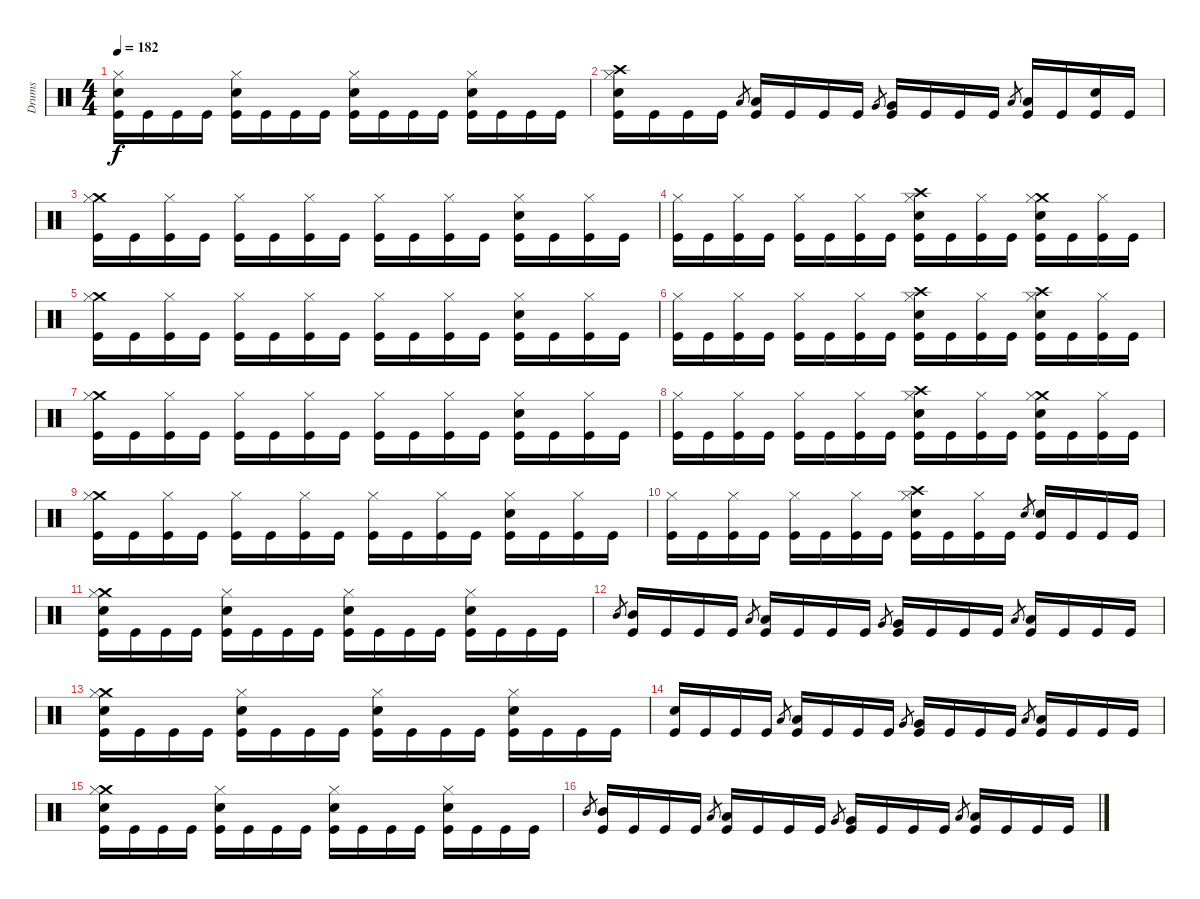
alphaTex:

\track ("Drums" "Drums") {instrument percussion}
\staff {score}
\articulation defaults
\ts (4 4)
\tempo 182
\clef neutral
\ks c
("Hi-Hat (closed)" "Snare (hit) 2" "Kick (hit)").16{dy f} "Kick (hit)".16 "Kick (hit)".16 "Kick (hit)".16 ("Hi-Hat (closed)" "Snare (hit) 2" "Kick (hit)").16 "Kick (hit)".16 "Kick (hit)".16 "Kick (hit)".16 ("Hi-Hat (closed)" "Snare (hit) 2" "Kick (hit)").16 "Kick (hit)".16 "Kick (hit)".16 "Kick (hit)".16 ("Hi-Hat (closed)" "Snare (hit) 2" "Kick (hit)").16 "Kick (hit)".16 "Kick (hit)".16 "Kick (hit)".16 |
("Crash high (hit)" "Hi-Hat (closed)" "Snare (hit) 2" "Kick (hit)").16 "Kick (hit)".16 "Kick (hit)".16 "Kick (hit)".16 "Low Tom (hit)".8{gr} ("Low Tom (hit)" "Kick (hit)").16 "Kick (hit)".16 "Kick (hit)".16 "Kick (hit)".16 "Very Low Tom (hit)".8{gr} ("Very Low Tom (hit)" "Kick (hit)").16 "Kick (hit)".16 "Kick (hit)".16 "Kick (hit)".16 "Low Floor Tom (hit)".8{gr} ("Low Floor Tom (hit)" "Kick (hit)").16 "Kick (hit)".16 ("Snare (hit) 2" "Kick (hit)").16 "Kick (hit)".16 |
("Crash medium (hit)" "Hi-Hat (closed)" "Kick (hit)").16 "Kick (hit)".16 ("Hi-Hat (closed)" "Kick (hit)").16 "Kick (hit)".16 ("Hi-Hat (closed)" "Kick (hit)").16 "Kick (hit)".16 ("Hi-Hat (closed)" "Kick (hit)").16 "Kick (hit)".16 ("Hi-Hat (closed)" "Kick (hit)").16 "Kick (hit)".16 ("Hi-Hat (closed)" "Kick (hit)").16 "Kick (hit)".16 ("Hi-Hat (closed)" "Snare (hit) 2" "Kick (hit)").16 "Kick (hit)".16 ("Hi-Hat (closed)" "Kick (hit)").16 "Kick (hit)".16 |
("Hi-Hat (closed)" "Kick (hit)").16 "Kick (hit)".16 ("Hi-Hat (closed)" "Kick (hit)").16 "Kick (hit)".16 ("Hi-Hat (closed)" "Kick (hit)").16 "Kick (hit)".16 ("Hi-Hat (closed)" "Kick (hit)").16 "Kick (hit)".16 ("Crash high (hit)" "Hi-Hat (closed)" "Snare (hit) 2" "Kick (hit)").16 "Kick (hit)".16 ("Hi-Hat (closed)" "Kick (hit)").16 "Kick (hit)".16 ("Crash medium (hit)" "Hi-Hat (closed)" "Snare (hit) 2" "Kick (hit)").16 "Kick (hit)".16 ("Hi-Hat (closed)" "Kick (hit)").16 "Kick (hit)".16 |
("Crash medium (hit)" "Hi-Hat (closed)" "Kick (hit)").16 "Kick (hit)".16 ("Hi-Hat (closed)" "Kick (hit)").16 "Kick (hit)".16 ("Hi-Hat (closed)" "Kick (hit)").16 "Kick (hit)".16 ("Hi-Hat (closed)" "Kick (hit)").16 "Kick (hit)".16 ("Hi-Hat (closed)" "Kick (hit)").16 "Kick (hit)".16 ("Hi-Hat (closed)" "Kick (hit)").16 "Kick (hit)".16 ("Hi-Hat (closed)" "Snare (hit) 2" "Kick (hit)").16 "Kick (hit)".16 ("Hi-Hat (closed)" "Kick (hit)").16 "Kick (hit)".16 |
("Hi-Hat (closed)" "Kick (hit)").16 "Kick (hit)".16 ("Hi-Hat (closed)" "Kick (hit)").16 "Kick (hit)".16 ("Hi-Hat (closed)" "Kick (hit)").16 "Kick (hit)".16 ("Hi-Hat (closed)" "Kick (hit)").16 "Kick (hit)".16 ("Crash high (hit)" "Hi-Hat (closed)" "Snare (hit) 2" "Kick (hit)").16 "Kick (hit)".16 ("Hi-Hat (closed)" "Kick (hit)").16 "Kick (hit)".16 ("Crash high (hit)" "Hi-Hat (closed)" "Snare (hit) 2" "Kick (hit)").16 "Kick (hit)".16 ("Hi-Hat (closed)" "Kick (hit)").16 "Kick (hit)".16 |
("Crash medium (hit)" "Hi-Hat (closed)" "Kick (hit)").16 "Kick (hit)".16 ("Hi-Hat (closed)" "Kick (hit)").16 "Kick (hit)".16 ("Hi-Hat (closed)" "Kick (hit)").16 "Kick (hit)".16 ("Hi-Hat (closed)" "Kick (hit)").16 "Kick (hit)".16 ("Hi-Hat (closed)" "Kick (hit)").16 "Kick (hit)".16 ("Hi-Hat (closed)" "Kick (hit)").16 "Kick (hit)".16 ("Hi-Hat (closed)" "Snare (hit) 2" "Kick (hit)").16 "Kick (hit)".16 ("Hi-Hat (closed)" "Kick (hit)").16 "Kick (hit)".16 |
("Hi-Hat (closed)" "Kick (hit)").16 "Kick (hit)".16 ("Hi-Hat (closed)" "Kick (hit)").16 "Kick (hit)".16 ("Hi-Hat (closed)" "Kick (hit)").16 "Kick (hit)".16 ("Hi-Hat (closed)" "Kick (hit)").16 "Kick (hit)".16 ("Crash high (hit)" "Hi-Hat (closed)" "Snare (hit) 2" "Kick (hit)").16 "Kick (hit)".16 ("Hi-Hat (closed)" "Kick (hit)").16 "Kick (hit)".16 ("Crash medium (hit)" "Hi-Hat (closed)" "Snare (hit) 2" "Kick (hit)").16 "Kick (hit)".16 ("Hi-Hat (closed)" "Kick (hit)").16 "Kick (hit)".16 |
("Crash medium (hit)" "Hi-Hat (closed)" "Kick (hit)").16 "Kick (hit)".16 ("Hi-Hat (closed)" "Kick (hit)").16 "Kick (hit)".16 ("Hi-Hat (closed)" "Kick (hit)").16 "Kick (hit)".16 ("Hi-Hat (closed)" "Kick (hit)").16 "Kick (hit)".16 ("Hi-Hat (closed)" "Kick (hit)").16 "Kick (hit)".16 ("Hi-Hat (closed)" "Kick (hit)").16 "Kick (hit)".16 ("Hi-Hat (closed)" "Snare (hit) 2" "Kick (hit)").16 "Kick (hit)".16 ("Hi-Hat (closed)" "Kick (hit)").16 "Kick (hit)".16 |
("Hi-Hat (closed)" "Kick (hit)").16 "Kick (hit)".16 ("Hi-Hat (closed)" "Kick (hit)").16 "Kick (hit)".16 ("Hi-Hat (closed)" "Kick (hit)").16 "Kick (hit)".16 ("Hi-Hat (closed)" "Kick (hit)").16 "Kick (hit)".16 ("Crash high (hit)" "Hi-Hat (closed)" "Snare (hit) 2" "Kick (hit)").16 "Kick (hit)".16 ("Hi-Hat (closed)" "Kick (hit)").16 "Kick (hit)".16 "Snare (hit) 2".8{gr} ("Snare (hit) 2" "Kick (hit)").16 "Kick (hit)".16 "Kick (hit)".16 "Kick (hit)".16 |
("Crash medium (hit)" "Hi-Hat (closed)" "Snare (hit) 2" "Kick (hit)").16 "Kick (hit)".16 "Kick (hit)".16 "Kick (hit)".16 ("Hi-Hat (closed)" "Snare (hit) 2" "Kick (hit)").16 "Kick (hit)".16 "Kick (hit)".16 "Kick (hit)".16 ("Hi-Hat (closed)" "Snare (hit) 2" "Kick (hit)").16 "Kick (hit)".16 "Kick (hit)".16 "Kick (hit)".16 ("Hi-Hat (closed)" "Snare (hit) 2" "Kick (hit)").16 "Kick (hit)".16 "Kick (hit)".16 "Kick (hit)".16 |
"Mid Tom (hit)".8{gr} ("Mid Tom (hit)" "Kick (hit)").16 "Kick (hit)".16 "Kick (hit)".16 "Kick (hit)".16 "Low Tom (hit)".8{gr} ("Low Tom (hit)" "Kick (hit)").16 "Kick (hit)".16 "Kick (hit)".16 "Kick (hit)".16 "Very Low Tom (hit)".8{gr} ("Very Low Tom (hit)" "Kick (hit)").16 "Kick (hit)".16 "Kick (hit)".16 "Kick (hit)".16 "Low Floor Tom (hit)".8{gr} ("Low Floor Tom (hit)" "Kick (hit)").16 "Kick (hit)".16 "Kick (hit)".16 "Kick (hit)".16 |
("Crash medium (hit)" "Hi-Hat (closed)" "Snare (hit) 2" "Kick (hit)").16 "Kick (hit)".16 "Kick (hit)".16 "Kick (hit)".16 ("Hi-Hat (closed)" "Snare (hit) 2" "Kick (hit)").16 "Kick (hit)".16 "Kick (hit)".16 "Kick (hit)".16 ("Hi-Hat (closed)" "Snare (hit) 2" "Kick (hit)").16 "Kick (hit)".16 "Kick (hit)".16 "Kick (hit)".16 ("Hi-Hat (closed)" "Snare (hit) 2" "Kick (hit)").16 "Kick (hit)".16 "Kick (hit)".16 "Kick (hit)".16 |
("Snare (hit) 2" "Kick (hit)").16 "Kick (hit)".16 "Kick (hit)".16 "Kick (hit)".16 "Low Tom (hit)".8{gr} ("Low Tom (hit)" "Kick (hit)").16 "Kick (hit)".16 "Kick (hit)".16 "Kick (hit)".16 "Very Low Tom (hit)".8{gr} ("Very Low Tom (hit)" "Kick (hit)").16 "Kick (hit)".16 "Kick (hit)".16 "Kick (hit)".16 "Low Floor Tom (hit)".8{gr} ("Low Floor Tom (hit)" "Kick (hit)").16 "Kick (hit)".16 "Kick (hit)".16 "Kick (hit)".16 |
("Crash medium (hit)" "Hi-Hat (closed)" "Snare (hit) 2" "Kick (hit)").16 "Kick (hit)".16 "Kick (hit)".16 "Kick (hit)".16 ("Hi-Hat (closed)" "Snare (hit) 2" "Kick (hit)").16 "Kick (hit)".16 "Kick (hit)".16 "Kick (hit)".16 ("Hi-Hat (closed)" "Snare (hit) 2" "Kick (hit)").16 "Kick (hit)".16 "Kick (hit)".16 "Kick (hit)".16 ("Hi-Hat (closed)" "Snare (hit) 2" "Kick (hit)").16 "Kick (hit)".16 "Kick (hit)".16 "Kick (hit)".16 |
"Mid Tom (hit)".8{gr} ("Mid Tom (hit)" "Kick (hit)").16 "Kick (hit)".16 "Kick (hit)".16 "Kick (hit)".16 "Low Tom (hit)".8{gr} ("Low Tom (hit)" "Kick (hit)").16 "Kick (hit)".16 "Kick (hit)".16 "Kick (hit)".16 "Very Low Tom (hit)".8{gr} ("Very Low Tom (hit)" "Kick (hit)").16 "Kick (hit)".16 "Kick (hit)".16 "Kick (hit)".16 "Low Floor Tom (hit)".8{gr} ("Low Floor Tom (hit)" "Kick (hit)").16 "Kick (hit)".16 "Kick (hit)".16 "Kick (hit)".16
